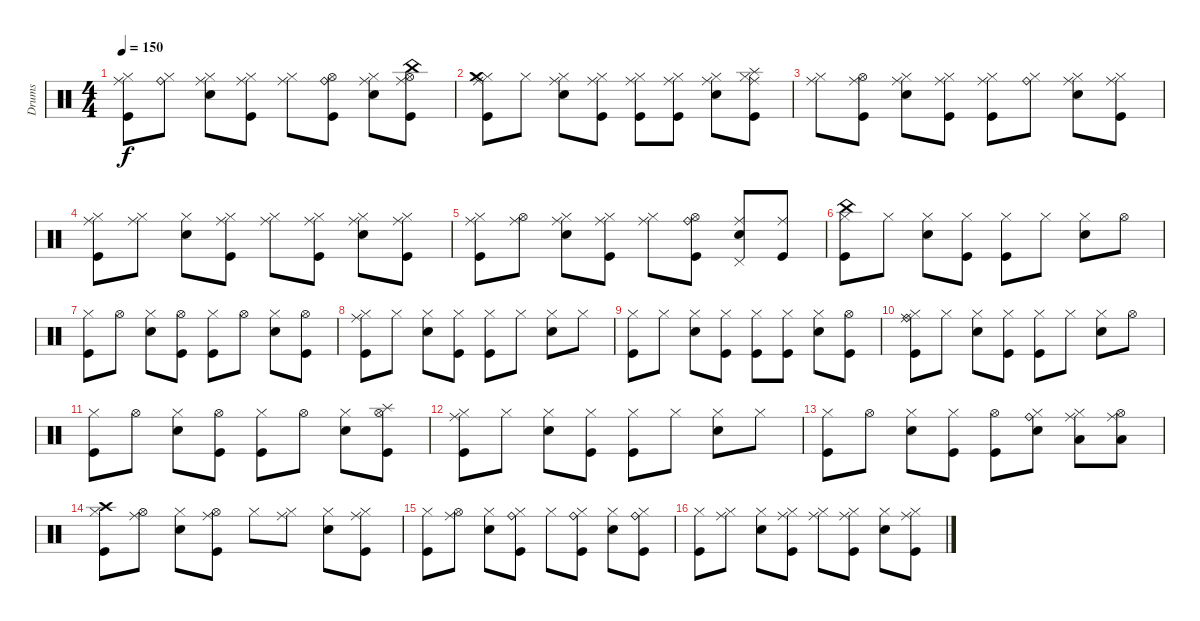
\track ("Drums" "Drums") {instrument percussion}
\staff {score}
\articulation defaults
\ts (4 4)
\tempo 150
\clef neutral
\ks c
("Kick (hit)" "Hi-Hat (closed)" "Ride (middle)").8{dy f} ("Hi-Hat (closed)" "Ride (bell)").8 ("Snare (hit) 2" "Hi-Hat (closed)" "Ride (middle)").8 ("Kick (hit)" "Hi-Hat (closed)" "Ride (middle)").8 ("Hi-Hat (closed)" "Ride (middle)").8 ("Kick (hit)" "Hi-Hat (open)" "Ride (bell)").8 ("Snare (hit) 2" "Hi-Hat (closed)" "Ride (middle)").8 ("China (hit)" "Ride (middle)" "Hi-Hat (open)" "Kick (hit)").8 |
("Kick (hit)" "Hi-Hat (closed)" "Ride (middle)" "Crash medium (hit)").8 "Hi-Hat (closed)".8 ("Snare (hit) 2" "Hi-Hat (closed)" "Ride (middle)").8 ("Hi-Hat (closed)" "Ride (middle)" "Kick (hit)").8 ("Hi-Hat (closed)" "Ride (middle)" "Kick (hit)").8 ("Ride (middle)" "Kick (hit)" "Hi-Hat (closed)").8 ("Snare (hit) 2" "Hi-Hat (closed)" "Ride (middle)").8 ("Ride (middle)" "Splash (hit)" "Kick (hit)" "Hi-Hat (closed)").8 |
("Hi-Hat (closed)" "Ride (middle)").8 ("Kick (hit)" "Hi-Hat (open)" "Ride (middle)").8 ("Snare (hit) 2" "Hi-Hat (closed)" "Ride (middle)").8 ("Kick (hit)" "Hi-Hat (closed)" "Ride (middle)").8 ("Kick (hit)" "Hi-Hat (closed)" "Ride (middle)").8 ("Hi-Hat (closed)" "Ride (bell)").8 ("Snare (hit) 2" "Hi-Hat (closed)" "Ride (middle)").8 ("Ride (middle)" "Kick (hit)" "Hi-Hat (closed)").8 |
("Kick (hit)" "Hi-Hat (closed)" "Ride (middle)").8 ("Hi-Hat (closed)" "Ride (middle)").8 ("Snare (hit) 2" "Hi-Hat (closed)").8 ("Kick (hit)" "Hi-Hat (closed)" "Ride (middle)").8 ("Hi-Hat (closed)" "Ride (middle)").8 ("Kick (hit)" "Hi-Hat (closed)" "Ride (middle)").8 ("Snare (hit) 2" "Hi-Hat (closed)" "Ride (middle)").8 ("Kick (hit)" "Hi-Hat (closed)" "Ride (middle)").8 |
("Ride (middle)" "Kick (hit)" "Hi-Hat (closed)").8 ("Hi-Hat (open)" "Ride (middle)").8 ("Ride (middle)" "Snare (hit) 2" "Hi-Hat (closed)").8 ("Kick (hit)" "Hi-Hat (closed)" "Ride (middle)").8 ("Hi-Hat (closed)" "Ride (middle)").8 ("Ride (bell)" "Kick (hit)" "Hi-Hat (open)").8 ("Snare (hit) 2" "Pedal Hi-Hat (hit)" "Ride (middle)").8 ("Kick (hit)" "Ride (middle)").8 |
("China (hit)" "Kick (hit)" "Hi-Hat (closed)").8 "Hi-Hat (closed)".8 ("Snare (hit) 2" "Hi-Hat (closed)").8 ("Kick (hit)" "Hi-Hat (closed)").8 ("Kick (hit)" "Hi-Hat (closed)").8 "Hi-Hat (closed)".8 ("Snare (hit) 2" "Hi-Hat (closed)").8 "Hi-Hat (open)".8 |
("Kick (hit)" "Hi-Hat (closed)").8 "Hi-Hat (open)".8 ("Snare (hit) 2" "Hi-Hat (closed)").8 ("Kick (hit)" "Hi-Hat (open)").8 ("Kick (hit)" "Hi-Hat (closed)").8 "Hi-Hat (open)".8 ("Snare (hit) 2" "Hi-Hat (closed)").8 ("Kick (hit)" "Hi-Hat (open)").8 |
("Ride (middle)" "Kick (hit)" "Hi-Hat (closed)").8 "Hi-Hat (closed)".8 ("Snare (hit) 2" "Hi-Hat (closed)").8 ("Kick (hit)" "Hi-Hat (closed)").8 ("Kick (hit)" "Hi-Hat (closed)").8 "Hi-Hat (closed)".8 ("Snare (hit) 2" "Hi-Hat (closed)").8 "Hi-Hat (closed)".8 |
("Kick (hit)" "Hi-Hat (closed)").8 "Hi-Hat (closed)".8 ("Snare (hit) 2" "Hi-Hat (closed)").8 ("Kick (hit)" "Hi-Hat (closed)").8 ("Kick (hit)" "Hi-Hat (closed)").8 ("Kick (hit)" "Hi-Hat (closed)").8 ("Snare (hit) 2" "Hi-Hat (closed)").8 ("Kick (hit)" "Hi-Hat (open)").8 |
("Hi-Hat (closed)" "Kick (hit)" "Ride (bell)" "Ride (middle)").8 "Hi-Hat (closed)".8 ("Snare (hit) 2" "Hi-Hat (closed)").8 ("Kick (hit)" "Hi-Hat (closed)").8 ("Kick (hit)" "Hi-Hat (closed)").8 "Hi-Hat (closed)".8 ("Snare (hit) 2" "Hi-Hat (closed)").8 "Hi-Hat (open)".8 |
("Kick (hit)" "Hi-Hat (closed)").8 "Hi-Hat (open)".8 ("Snare (hit) 2" "Hi-Hat (closed)").8 ("Kick (hit)" "Hi-Hat (open)").8 ("Kick (hit)" "Hi-Hat (closed)").8 "Hi-Hat (open)".8 ("Snare (hit) 2" "Hi-Hat (closed)").8 ("Splash (hit)" "Kick (hit)" "Hi-Hat (open)").8 |
("Kick (hit)" "Hi-Hat (closed)" "Ride (middle)").8 "Hi-Hat (closed)".8 ("Snare (hit) 2" "Hi-Hat (closed)").8 ("Kick (hit)" "Hi-Hat (closed)").8 ("Kick (hit)" "Hi-Hat (closed)").8 "Hi-Hat (closed)".8 ("Snare (hit) 2" "Hi-Hat (closed)").8 "Hi-Hat (closed)".8 |
("Kick (hit)" "Hi-Hat (closed)").8 "Hi-Hat (open)".8 ("Snare (hit) 2" "Hi-Hat (closed)").8 ("Kick (hit)" "Hi-Hat (closed)").8 ("Kick (hit)" "Hi-Hat (open)").8 ("Snare (hit) 2" "Hi-Hat (closed)" "Ride (bell)").8 ("Hi-Hat (closed)" "Low Tom (hit)" "Ride (middle)").8 ("Hi-Hat (open)" "Ride (middle)" "Low Floor Tom (hit)").8 |
("Kick (hit)" "Hi-Hat (closed)" "Crash high (hit)").8 ("Hi-Hat (open)" "Ride (middle)").8 ("Snare (hit) 2" "Hi-Hat (closed)").8 ("Kick (hit)" "Hi-Hat (open)" "Ride (middle)").8 "Hi-Hat (closed)".8 ("Hi-Hat (closed)" "Ride (middle)").8 ("Snare (hit) 2" "Hi-Hat (closed)").8 ("Hi-Hat (closed)" "Ride (middle)" "Kick (hit)").8 |
("Kick (hit)" "Hi-Hat (closed)").8 ("Hi-Hat (open)" "Ride (middle)").8 ("Snare (hit) 2" "Hi-Hat (closed)").8 ("Hi-Hat (closed)" "Ride (bell)" "Kick (hit)").8 "Hi-Hat (closed)".8 ("Kick (hit)" "Hi-Hat (closed)" "Ride (bell)").8 ("Snare (hit) 2" "Hi-Hat (closed)").8 ("Kick (hit)" "Hi-Hat (closed)" "Ride (bell)").8 |
("Kick (hit)" "Hi-Hat (closed)").8 ("Hi-Hat (closed)" "Ride (middle)").8 ("Snare (hit) 2" "Hi-Hat (closed)").8 ("Hi-Hat (closed)" "Ride (middle)" "Kick (hit)").8 ("Hi-Hat (closed)" "Ride (middle)").8 ("Kick (hit)" "Hi-Hat (closed)" "Ride (middle)").8 ("Snare (hit) 2" "Hi-Hat (closed)").8 ("Kick (hit)" "Hi-Hat (closed)" "Ride (middle)").8
